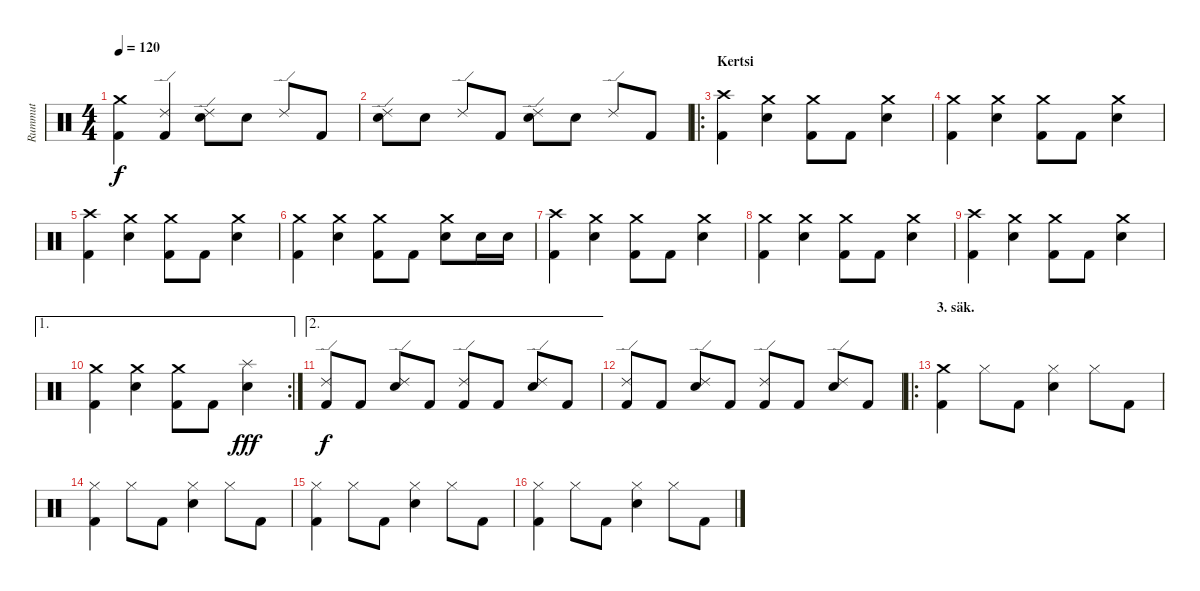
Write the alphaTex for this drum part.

\track ("Rummut" "Rummut") {instrument percussion}
\staff {score}
\articulation defaults
\ts (4 4)
\tempo 120
\clef neutral
\ks c
("Kick (hit) 2" "Crash medium (hit)").4{dy f} ("Kick (hit) 2" "Ride (edge) 2").4 ("Ride (edge) 2" "Snare (hit) 2").8 "Snare (hit) 2".8 "Ride (edge) 2".8 "Kick (hit) 2".8 |
("Ride (edge) 2" "Snare (hit) 2").8 "Snare (hit) 2".8 "Ride (edge) 2".8 "Kick (hit) 2".8 ("Ride (edge) 2" "Snare (hit) 2").8 "Snare (hit) 2".8 "Ride (edge) 2".8 "Kick (hit) 2".8 |
\ro
\section ("" "Kertsi")
("Kick (hit) 2" "Crash high (hit)").4 ("Crash medium (hit)" "Snare (hit) 2").4 ("Kick (hit) 2" "Crash medium (hit)").8 "Kick (hit) 2".8 ("Crash medium (hit)" "Snare (hit) 2").4 |
("Kick (hit) 2" "Crash medium (hit)").4 ("Crash medium (hit)" "Snare (hit) 2").4 ("Kick (hit) 2" "Crash medium (hit)").8 "Kick (hit) 2".8 ("Crash medium (hit)" "Snare (hit) 2").4 |
("Kick (hit) 2" "Crash high (hit)").4 ("Crash medium (hit)" "Snare (hit) 2").4 ("Kick (hit) 2" "Crash medium (hit)").8 "Kick (hit) 2".8 ("Crash medium (hit)" "Snare (hit) 2").4 |
("Kick (hit) 2" "Crash medium (hit)").4 ("Crash medium (hit)" "Snare (hit) 2").4 ("Kick (hit) 2" "Crash medium (hit)").8 "Kick (hit) 2".8 ("Crash medium (hit)" "Snare (hit) 2").8 "Snare (hit) 2".16 "Snare (hit) 2".16 |
("Kick (hit) 2" "Crash high (hit)").4 ("Crash medium (hit)" "Snare (hit) 2").4 ("Kick (hit) 2" "Crash medium (hit)").8 "Kick (hit) 2".8 ("Crash medium (hit)" "Snare (hit) 2").4 |
("Kick (hit) 2" "Crash medium (hit)").4 ("Crash medium (hit)" "Snare (hit) 2").4 ("Kick (hit) 2" "Crash medium (hit)").8 "Kick (hit) 2".8 ("Crash medium (hit)" "Snare (hit) 2").4 |
("Kick (hit) 2" "Crash high (hit)").4 ("Crash medium (hit)" "Snare (hit) 2").4 ("Kick (hit) 2" "Crash medium (hit)").8 "Kick (hit) 2".8 ("Crash medium (hit)" "Snare (hit) 2").4 |
\ae 1
\rc 2
("Kick (hit) 2" "Crash medium (hit)").4 ("Crash medium (hit)" "Snare (hit) 2").4 ("Kick (hit) 2" "Crash medium (hit)").8 "Kick (hit) 2".8 ("Splash (hit)" "Snare (hit) 2").4{dy fff} |
\ae 2
("Kick (hit) 2" "Ride (edge) 2").8{dy f} "Kick (hit) 2".8 ("Ride (edge) 2" "Snare (hit) 2").8 "Kick (hit) 2".8 ("Kick (hit) 2" "Ride (edge) 2").8 "Kick (hit) 2".8 ("Ride (edge) 2" "Snare (hit) 2").8 "Kick (hit) 2".8 |
("Kick (hit) 2" "Ride (edge) 2").8 "Kick (hit) 2".8 ("Ride (edge) 2" "Snare (hit) 2").8 "Kick (hit) 2".8 ("Kick (hit) 2" "Ride (edge) 2").8 "Kick (hit) 2".8 ("Ride (edge) 2" "Snare (hit) 2").8 "Kick (hit) 2".8 |
\ro
\section ("" "3. säk.")
("Kick (hit) 2" "Crash medium (hit)").4 "Hi-Hat (closed)".8 "Kick (hit) 2".8 ("Hi-Hat (closed)" "Snare (hit) 2").4 "Hi-Hat (closed)".8 "Kick (hit) 2".8 |
("Kick (hit) 2" "Hi-Hat (closed)").4 "Hi-Hat (closed)".8 "Kick (hit) 2".8 ("Hi-Hat (closed)" "Snare (hit) 2").4 "Hi-Hat (closed)".8 "Kick (hit) 2".8 |
("Kick (hit) 2" "Hi-Hat (closed)").4 "Hi-Hat (closed)".8 "Kick (hit) 2".8 ("Hi-Hat (closed)" "Snare (hit) 2").4 "Hi-Hat (closed)".8 "Kick (hit) 2".8 |
("Kick (hit) 2" "Hi-Hat (closed)").4 "Hi-Hat (closed)".8 "Kick (hit) 2".8 ("Hi-Hat (closed)" "Snare (hit) 2").4 "Hi-Hat (closed)".8 "Kick (hit) 2".8
